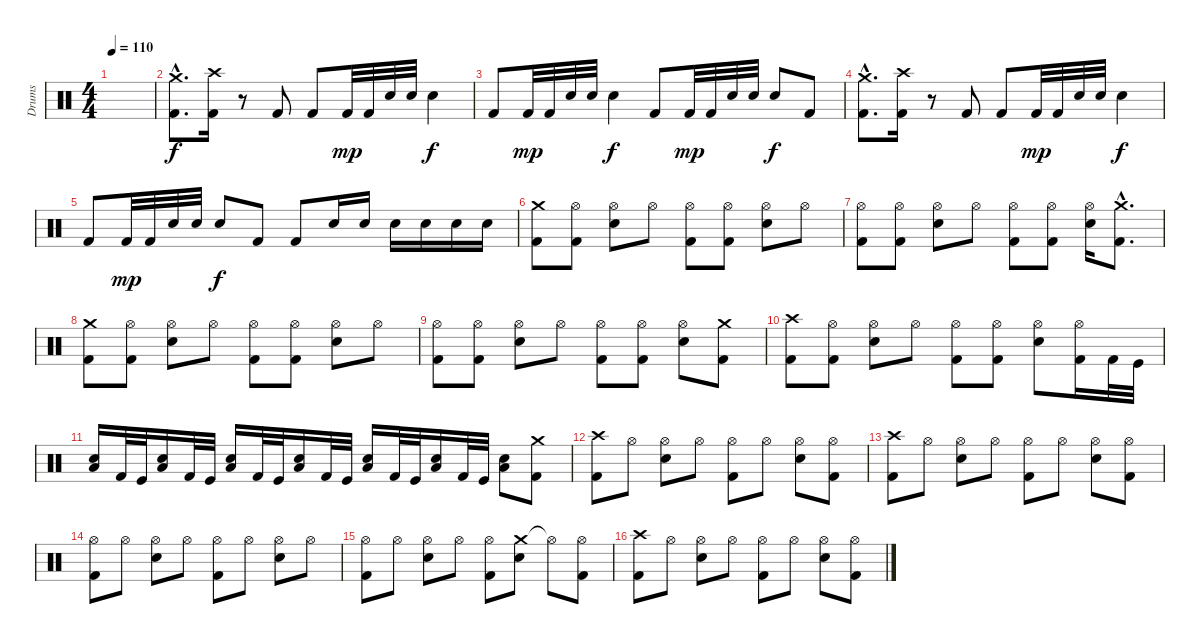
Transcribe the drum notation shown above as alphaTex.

\track ("Drums" "Drums") {instrument percussion}
\staff {score}
\articulation defaults
\ts (4 4)
\tempo 110
\clef neutral
\ks c
|
("Crash medium (hit)"{hac} "Kick (hit) 2"{hac}).8{d} ("Crash high (hit)" "Kick (hit) 2").16 r.8 "Kick (hit) 2".8 "Kick (hit) 2".8 "Kick (hit) 2".32{dy mp} "Kick (hit) 2".32 "Snare (hit) 2".32 "Snare (hit) 2".32 "Snare (hit) 2".4{dy f} |
"Kick (hit) 2".8 "Kick (hit) 2".32{dy mp} "Kick (hit) 2".32 "Snare (hit) 2".32 "Snare (hit) 2".32 "Snare (hit) 2".4{dy f} "Kick (hit) 2".8 "Kick (hit) 2".32{dy mp} "Kick (hit) 2".32 "Snare (hit) 2".32 "Snare (hit) 2".32 "Snare (hit) 2".8{dy f} "Kick (hit) 2".8 |
("Crash medium (hit)"{hac} "Kick (hit) 2"{hac}).8{d} ("Crash high (hit)" "Kick (hit) 2").16 r.8 "Kick (hit) 2".8 "Kick (hit) 2".8 "Kick (hit) 2".32{dy mp} "Kick (hit) 2".32 "Snare (hit) 2".32 "Snare (hit) 2".32 "Snare (hit) 2".4{dy f} |
"Kick (hit) 2".8 "Kick (hit) 2".32{dy mp} "Kick (hit) 2".32 "Snare (hit) 2".32 "Snare (hit) 2".32 "Snare (hit) 2".8{dy f} "Kick (hit) 2".8 "Kick (hit) 2".8 "Snare (hit) 2".16 "Snare (hit) 2".16 "Snare (hit) 2".16 "Snare (hit) 2".16 "Snare (hit) 2".16 "Snare (hit) 2".16 |
("Crash medium (hit)" "Kick (hit) 2").8 ("Hi-Hat (open)" "Kick (hit) 2").8 ("Hi-Hat (open)" "Snare (hit) 2").8 "Hi-Hat (open)".8 ("Hi-Hat (open)" "Kick (hit) 2").8 ("Hi-Hat (open)" "Kick (hit) 2").8 ("Hi-Hat (open)" "Snare (hit) 2").8 "Hi-Hat (open)".8 |
("Hi-Hat (open)" "Kick (hit) 2").8 ("Hi-Hat (open)" "Kick (hit) 2").8 ("Hi-Hat (open)" "Snare (hit) 2").8 "Hi-Hat (open)".8 ("Hi-Hat (open)" "Kick (hit) 2").8 ("Hi-Hat (open)" "Kick (hit) 2").8 ("Hi-Hat (open)" "Snare (hit) 2").16 ("Crash medium (hit)"{hac} "Kick (hit) 2"{hac}).8{d} |
("Crash medium (hit)" "Kick (hit) 2").8 ("Hi-Hat (open)" "Kick (hit) 2").8 ("Hi-Hat (open)" "Snare (hit) 2").8 "Hi-Hat (open)".8 ("Hi-Hat (open)" "Kick (hit) 2").8 ("Hi-Hat (open)" "Kick (hit) 2").8 ("Hi-Hat (open)" "Snare (hit) 2").8 "Hi-Hat (open)".8 |
("Hi-Hat (open)" "Kick (hit) 2").8 ("Hi-Hat (open)" "Kick (hit) 2").8 ("Hi-Hat (open)" "Snare (hit) 2").8 "Hi-Hat (open)".8 ("Hi-Hat (open)" "Kick (hit) 2").8 ("Hi-Hat (open)" "Kick (hit) 2").8 ("Hi-Hat (open)" "Snare (hit) 2").8 ("Crash medium (hit)" "Kick (hit) 2").8 |
("Crash high (hit)" "Kick (hit) 2").8 ("Hi-Hat (open)" "Kick (hit) 2").8 ("Hi-Hat (open)" "Snare (hit) 2").8 "Hi-Hat (open)".8 ("Hi-Hat (open)" "Kick (hit) 2").8 ("Hi-Hat (open)" "Kick (hit) 2").8 ("Hi-Hat (open)" "Snare (hit) 2").8 ("Hi-Hat (open)" "Kick (hit) 2").16 "Kick (hit) 2".32 "Kick (hit)".32 |
("Low Floor Tom (hit)" "Snare (hit) 2").16 "Kick (hit) 2".32 "Kick (hit)".32 ("Low Floor Tom (hit)" "Snare (hit) 2").16 "Kick (hit) 2".32 "Kick (hit)".32 ("Low Floor Tom (hit)" "Snare (hit) 2").16 "Kick (hit) 2".32 "Kick (hit)".32 ("Low Floor Tom (hit)" "Snare (hit) 2").16 "Kick (hit) 2".32 "Kick (hit)".32 ("Low Floor Tom (hit)" "Snare (hit) 2").16 "Kick (hit) 2".32 "Kick (hit)".32 ("Low Floor Tom (hit)" "Snare (hit) 2").16 "Kick (hit) 2".32 "Kick (hit)".32 ("Low Floor Tom (hit)" "Snare (hit) 2").8 ("Crash medium (hit)" "Kick (hit) 2").8 |
("Crash high (hit)" "Kick (hit) 2").8 "Hi-Hat (open)".8 ("Hi-Hat (open)" "Snare (hit) 2").8 "Hi-Hat (open)".8 ("Hi-Hat (open)" "Kick (hit) 2").8 "Hi-Hat (open)".8 ("Hi-Hat (open)" "Snare (hit) 2").8 ("Hi-Hat (open)" "Kick (hit) 2").8 |
("Crash high (hit)" "Kick (hit) 2").8 "Hi-Hat (open)".8 ("Hi-Hat (open)" "Snare (hit) 2").8 "Hi-Hat (open)".8 ("Hi-Hat (open)" "Kick (hit) 2").8 "Hi-Hat (open)".8 ("Hi-Hat (open)" "Snare (hit) 2").8 ("Hi-Hat (open)" "Kick (hit) 2").8 |
("Hi-Hat (open)" "Kick (hit) 2").8 "Hi-Hat (open)".8 ("Hi-Hat (open)" "Snare (hit) 2").8 "Hi-Hat (open)".8 ("Hi-Hat (open)" "Kick (hit) 2").8 "Hi-Hat (open)".8 ("Hi-Hat (open)" "Snare (hit) 2").8 "Hi-Hat (open)".8 |
("Hi-Hat (open)" "Kick (hit) 2").8 "Hi-Hat (open)".8 ("Hi-Hat (open)" "Snare (hit) 2").8 "Hi-Hat (open)".8 ("Hi-Hat (open)" "Kick (hit) 2").8 ("Crash medium (hit)" "Snare (hit) 2").8 "Hi-Hat (open)"{t}.8 ("Hi-Hat (open)" "Kick (hit) 2").8 |
("Crash high (hit)" "Kick (hit) 2").8 "Hi-Hat (open)".8 ("Hi-Hat (open)" "Snare (hit) 2").8 "Hi-Hat (open)".8 ("Hi-Hat (open)" "Kick (hit) 2").8 "Hi-Hat (open)".8 ("Hi-Hat (open)" "Snare (hit) 2").8 ("Hi-Hat (open)" "Kick (hit) 2").8
